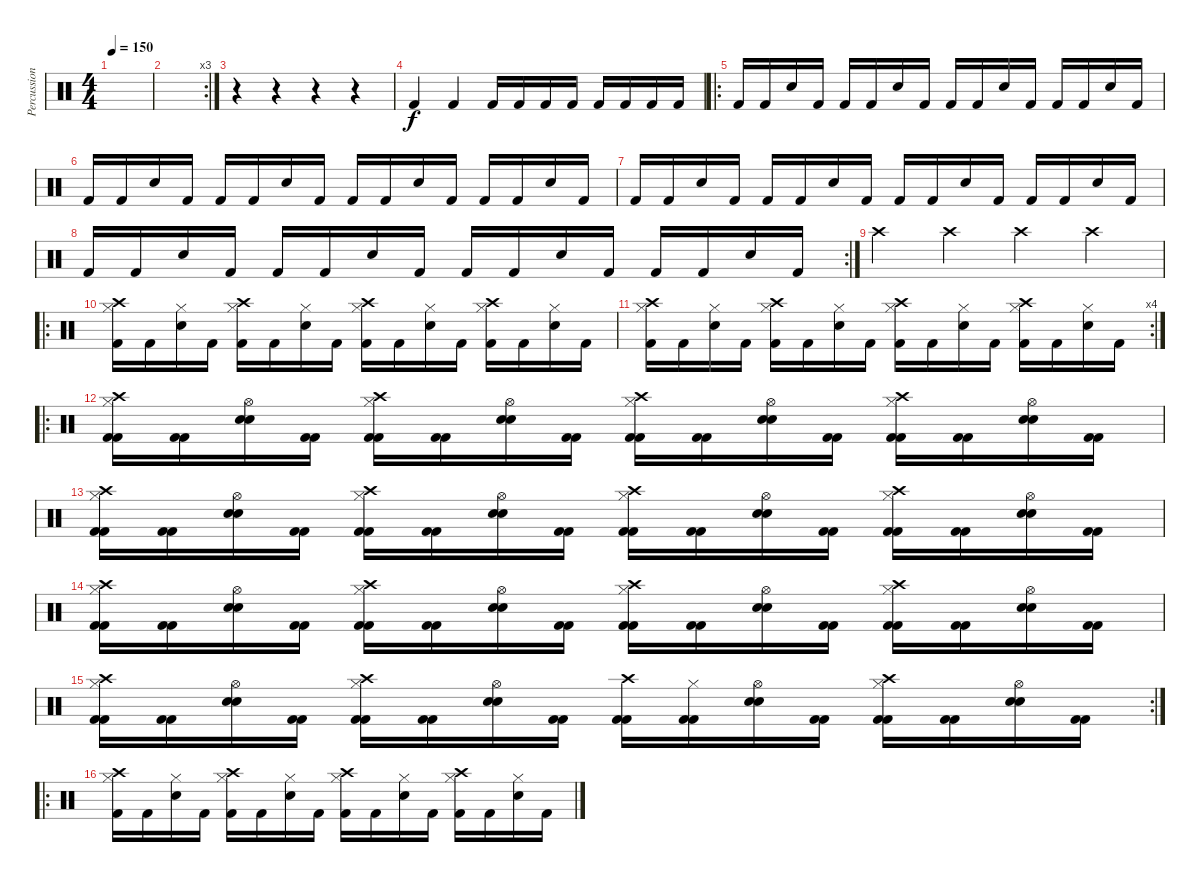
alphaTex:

\track ("Percussions" "Percussion") {instrument percussion}
\staff {score}
\articulation defaults
\ts (4 4)
\tempo 150
\clef neutral
\ks c
|
\rc 3
|
r.4 r.4 r.4 r.4 |
"Kick (hit) 2".4 "Kick (hit) 2".4 "Kick (hit) 2".16 "Kick (hit) 2".16 "Kick (hit) 2".16 "Kick (hit) 2".16 "Kick (hit) 2".16 "Kick (hit) 2".16 "Kick (hit) 2".16 "Kick (hit) 2".16 |
\ro "Kick (hit) 2".16 "Kick (hit) 2".16 "Snare (hit) 2".16 "Kick (hit) 2".16 "Kick (hit) 2".16 "Kick (hit) 2".16 "Snare (hit) 2".16 "Kick (hit) 2".16 "Kick (hit) 2".16 "Kick (hit) 2".16 "Snare (hit) 2".16 "Kick (hit) 2".16 "Kick (hit) 2".16 "Kick (hit) 2".16 "Snare (hit) 2".16 "Kick (hit) 2".16
|
"Kick (hit) 2".16 "Kick (hit) 2".16 "Snare (hit) 2".16 "Kick (hit) 2".16 "Kick (hit) 2".16 "Kick (hit) 2".16 "Snare (hit) 2".16 "Kick (hit) 2".16 "Kick (hit) 2".16 "Kick (hit) 2".16 "Snare (hit) 2".16 "Kick (hit) 2".16 "Kick (hit) 2".16 "Kick (hit) 2".16 "Snare (hit) 2".16 "Kick (hit) 2".16 |
"Kick (hit) 2".16 "Kick (hit) 2".16 "Snare (hit) 2".16 "Kick (hit) 2".16 "Kick (hit) 2".16 "Kick (hit) 2".16 "Snare (hit) 2".16 "Kick (hit) 2".16 "Kick (hit) 2".16 "Kick (hit) 2".16 "Snare (hit) 2".16 "Kick (hit) 2".16 "Kick (hit) 2".16 "Kick (hit) 2".16 "Snare (hit) 2".16 "Kick (hit) 2".16 |
\rc 2 "Kick (hit) 2".16 "Kick (hit) 2".16 "Snare (hit) 2".16 "Kick (hit) 2".16 "Kick (hit) 2".16 "Kick (hit) 2".16 "Snare (hit) 2".16 "Kick (hit) 2".16 "Kick (hit) 2".16 "Kick (hit) 2".16 "Snare (hit) 2".16 "Kick (hit) 2".16 "Kick (hit) 2".16 "Kick (hit) 2".16 "Snare (hit) 2".16 "Kick (hit) 2".16
|
"Crash high (hit)".4 "Crash high (hit)".4 "Crash high (hit)".4 "Crash high (hit)".4 |
\ro
("Crash high (hit)" "Hi-Hat (closed)" "Kick (hit) 2").16 "Kick (hit) 2".16 ("Hi-Hat (closed)" "Snare (hit) 2").16 "Kick (hit) 2".16 ("Crash high (hit)" "Hi-Hat (closed)" "Kick (hit) 2").16 "Kick (hit) 2".16 ("Hi-Hat (closed)" "Snare (hit) 2").16 "Kick (hit) 2".16 ("Crash high (hit)" "Hi-Hat (closed)" "Kick (hit) 2").16 "Kick (hit) 2".16 ("Hi-Hat (closed)" "Snare (hit) 2").16 "Kick (hit) 2".16 ("Crash high (hit)" "Hi-Hat (closed)" "Kick (hit) 2").16 "Kick (hit) 2".16 ("Hi-Hat (closed)" "Snare (hit) 2").16 "Kick (hit) 2".16 |
\rc 4
("Crash high (hit)" "Hi-Hat (closed)" "Kick (hit) 2").16 "Kick (hit) 2".16 ("Hi-Hat (closed)" "Snare (hit) 2").16 "Kick (hit) 2".16 ("Crash high (hit)" "Hi-Hat (closed)" "Kick (hit) 2").16 "Kick (hit) 2".16 ("Hi-Hat (closed)" "Snare (hit) 2").16 "Kick (hit) 2".16 ("Crash high (hit)" "Hi-Hat (closed)" "Kick (hit) 2").16 "Kick (hit) 2".16 ("Hi-Hat (closed)" "Snare (hit) 2").16 "Kick (hit) 2".16 ("Crash high (hit)" "Hi-Hat (closed)" "Kick (hit) 2").16 "Kick (hit) 2".16 ("Hi-Hat (closed)" "Snare (hit) 2").16 "Kick (hit) 2".16 |
\ro
("Crash high (hit)" "Hi-Hat (closed)" "Kick (hit) 2" "Kick (hit) 2").16 ("Kick (hit) 2" "Kick (hit) 2").16 ("Hi-Hat (open)" "Snare (hit) 2" "Snare (hit) 2").16 ("Kick (hit) 2" "Kick (hit) 2").16 ("Crash high (hit)" "Hi-Hat (closed)" "Kick (hit) 2" "Kick (hit) 2").16 ("Kick (hit) 2" "Kick (hit) 2").16 ("Hi-Hat (open)" "Snare (hit) 2" "Snare (hit) 2").16 ("Kick (hit) 2" "Kick (hit) 2").16 ("Crash high (hit)" "Hi-Hat (closed)" "Kick (hit) 2" "Kick (hit) 2").16 ("Kick (hit) 2" "Kick (hit) 2").16 ("Hi-Hat (open)" "Snare (hit) 2" "Snare (hit) 2").16 ("Kick (hit) 2" "Kick (hit) 2").16 ("Crash high (hit)" "Hi-Hat (closed)" "Kick (hit) 2" "Kick (hit) 2").16 ("Kick (hit) 2" "Kick (hit) 2").16 ("Hi-Hat (open)" "Snare (hit) 2" "Snare (hit) 2").16 ("Kick (hit) 2" "Kick (hit) 2").16 |
("Crash high (hit)" "Hi-Hat (closed)" "Kick (hit) 2" "Kick (hit) 2").16 ("Kick (hit) 2" "Kick (hit) 2").16 ("Hi-Hat (open)" "Snare (hit) 2" "Snare (hit) 2").16 ("Kick (hit) 2" "Kick (hit) 2").16 ("Crash high (hit)" "Hi-Hat (closed)" "Kick (hit) 2" "Kick (hit) 2").16 ("Kick (hit) 2" "Kick (hit) 2").16 ("Hi-Hat (open)" "Snare (hit) 2" "Snare (hit) 2").16 ("Kick (hit) 2" "Kick (hit) 2").16 ("Crash high (hit)" "Hi-Hat (closed)" "Kick (hit) 2" "Kick (hit) 2").16 ("Kick (hit) 2" "Kick (hit) 2").16 ("Hi-Hat (open)" "Snare (hit) 2" "Snare (hit) 2").16 ("Kick (hit) 2" "Kick (hit) 2").16 ("Crash high (hit)" "Hi-Hat (closed)" "Kick (hit) 2" "Kick (hit) 2").16 ("Kick (hit) 2" "Kick (hit) 2").16 ("Hi-Hat (open)" "Snare (hit) 2" "Snare (hit) 2").16 ("Kick (hit) 2" "Kick (hit) 2").16 |
("Crash high (hit)" "Hi-Hat (closed)" "Kick (hit) 2" "Kick (hit) 2").16 ("Kick (hit) 2" "Kick (hit) 2").16 ("Hi-Hat (open)" "Snare (hit) 2" "Snare (hit) 2").16 ("Kick (hit) 2" "Kick (hit) 2").16 ("Crash high (hit)" "Hi-Hat (closed)" "Kick (hit) 2" "Kick (hit) 2").16 ("Kick (hit) 2" "Kick (hit) 2").16 ("Hi-Hat (open)" "Snare (hit) 2" "Snare (hit) 2").16 ("Kick (hit) 2" "Kick (hit) 2").16 ("Crash high (hit)" "Hi-Hat (closed)" "Kick (hit) 2" "Kick (hit) 2").16 ("Kick (hit) 2" "Kick (hit) 2").16 ("Hi-Hat (open)" "Snare (hit) 2" "Snare (hit) 2").16 ("Kick (hit) 2" "Kick (hit) 2").16 ("Crash high (hit)" "Hi-Hat (closed)" "Kick (hit) 2" "Kick (hit) 2").16 ("Kick (hit) 2" "Kick (hit) 2").16 ("Hi-Hat (open)" "Snare (hit) 2" "Snare (hit) 2").16 ("Kick (hit) 2" "Kick (hit) 2").16 |
\rc 2
("Crash high (hit)" "Hi-Hat (closed)" "Kick (hit) 2" "Kick (hit) 2").16 ("Kick (hit) 2" "Kick (hit) 2").16 ("Hi-Hat (open)" "Snare (hit) 2" "Snare (hit) 2").16 ("Kick (hit) 2" "Kick (hit) 2").16 ("Crash high (hit)" "Hi-Hat (closed)" "Kick (hit) 2" "Kick (hit) 2").16 ("Kick (hit) 2" "Kick (hit) 2").16 ("Hi-Hat (open)" "Snare (hit) 2" "Snare (hit) 2").16 ("Kick (hit) 2" "Kick (hit) 2").16 ("Crash high (hit)" "Kick (hit) 2" "Kick (hit) 2").16 ("Hi-Hat (closed)" "Kick (hit) 2" "Kick (hit) 2").16 ("Hi-Hat (open)" "Snare (hit) 2" "Snare (hit) 2").16 ("Kick (hit) 2" "Kick (hit) 2").16 ("Crash high (hit)" "Hi-Hat (closed)" "Kick (hit) 2" "Kick (hit) 2").16 ("Kick (hit) 2" "Kick (hit) 2").16 ("Hi-Hat (open)" "Snare (hit) 2" "Snare (hit) 2").16 ("Kick (hit) 2" "Kick (hit) 2").16 |
\ro
("Crash high (hit)" "Hi-Hat (closed)" "Kick (hit) 2").16 "Kick (hit) 2".16 ("Hi-Hat (closed)" "Snare (hit) 2").16 "Kick (hit) 2".16 ("Crash high (hit)" "Hi-Hat (closed)" "Kick (hit) 2").16 "Kick (hit) 2".16 ("Hi-Hat (closed)" "Snare (hit) 2").16 "Kick (hit) 2".16 ("Crash high (hit)" "Hi-Hat (closed)" "Kick (hit) 2").16 "Kick (hit) 2".16 ("Hi-Hat (closed)" "Snare (hit) 2").16 "Kick (hit) 2".16 ("Crash high (hit)" "Hi-Hat (closed)" "Kick (hit) 2").16 "Kick (hit) 2".16 ("Hi-Hat (closed)" "Snare (hit) 2").16 "Kick (hit) 2".16
